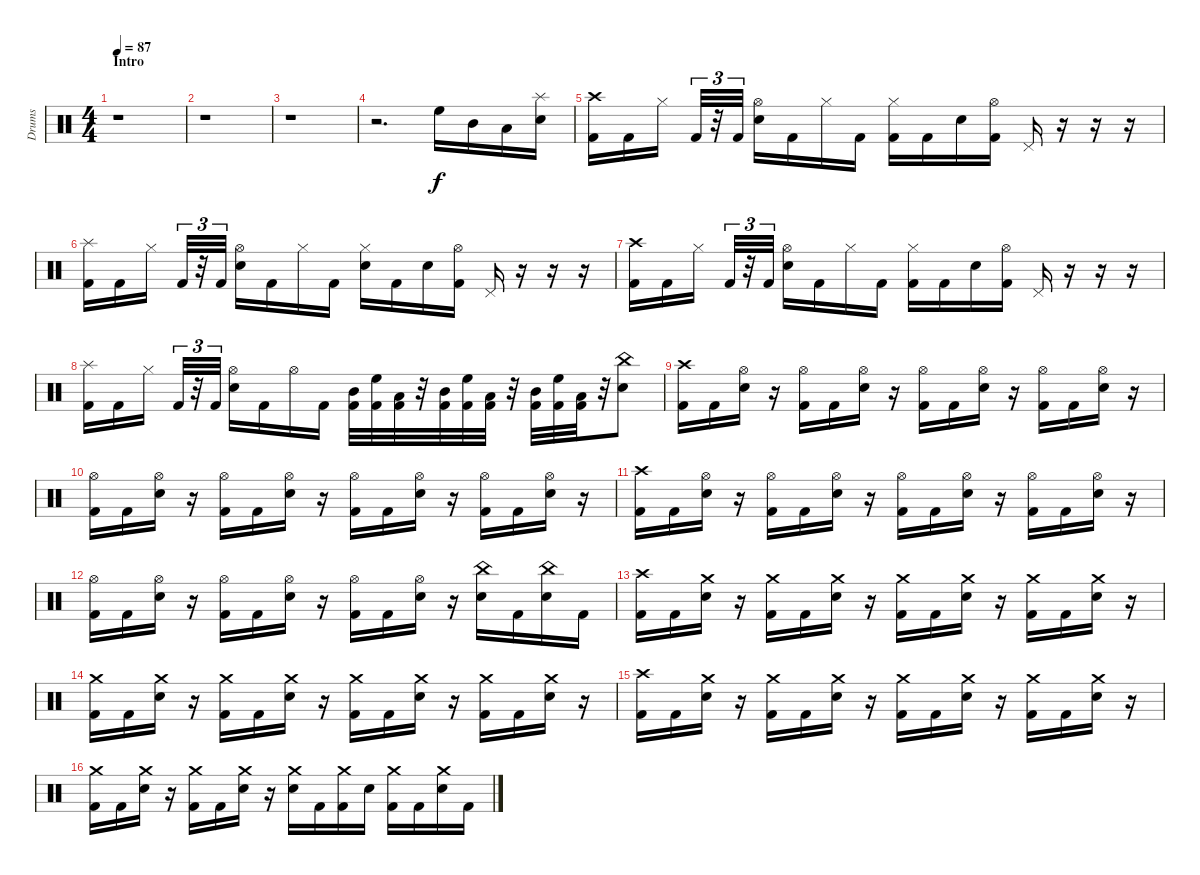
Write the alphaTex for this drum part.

\track ("Drums" "Drums") {instrument percussion}
\staff {score}
\articulation defaults
\ts (4 4)
\section ("" "Intro")
\tempo 87
\clef neutral
\ks c
r.1{dy f} |
r.1 |
r.1 |
r.2{d} "High Floor Tom (hit)".16 "Mid Tom (hit)".16 "Low Tom (hit)".16 ("Splash (hit)" "Electric Snare (hit)").16 |
("Crash high (hit)" "Kick (hit) 2").16 "Kick (hit) 2".16 "Hi-Hat (closed)".16 "Kick (hit) 2".32{tu (3 2)} r.32{tu (3 2)} "Kick (hit) 2".32{tu (3 2)} ("Hi-Hat (open)" "Electric Snare (hit)").16 "Kick (hit) 2".16 "Hi-Hat (closed)".16 "Kick (hit) 2".16 ("Hi-Hat (closed)" "Kick (hit) 2").16 "Kick (hit) 2".16 "Electric Snare (hit)".16 ("Hi-Hat (open)" "Kick (hit) 2").16 "Pedal Hi-Hat (hit)".16 r.16 r.16 r.16 |
("Splash (hit)" "Kick (hit) 2").16 "Kick (hit) 2".16 "Hi-Hat (closed)".16 "Kick (hit) 2".32{tu (3 2)} r.32{tu (3 2)} "Kick (hit) 2".32{tu (3 2)} ("Hi-Hat (open)" "Electric Snare (hit)").16 "Kick (hit) 2".16 "Hi-Hat (closed)".16 "Kick (hit) 2".16 ("Hi-Hat (closed)" "Electric Snare (hit)").16 "Kick (hit) 2".16 "Electric Snare (hit)".16 ("Hi-Hat (open)" "Kick (hit) 2").16 "Pedal Hi-Hat (hit)".16 r.16 r.16 r.16 |
("Crash high (hit)" "Kick (hit) 2").16 "Kick (hit) 2".16 "Hi-Hat (closed)".16 "Kick (hit) 2".32{tu (3 2)} r.32{tu (3 2)} "Kick (hit) 2".32{tu (3 2)} ("Hi-Hat (open)" "Electric Snare (hit)").16 "Kick (hit) 2".16 "Hi-Hat (closed)".16 "Kick (hit) 2".16 ("Hi-Hat (closed)" "Kick (hit) 2").16 "Kick (hit) 2".16 "Electric Snare (hit)".16 ("Hi-Hat (open)" "Kick (hit) 2").16 "Pedal Hi-Hat (hit)".16 r.16 r.16 r.16 |
("Splash (hit)" "Kick (hit) 2").16 "Kick (hit) 2".16 "Hi-Hat (closed)".16 "Kick (hit) 2".32{tu (3 2)} r.32{tu (3 2)} "Kick (hit) 2".32{tu (3 2)} ("Hi-Hat (open)" "Electric Snare (hit)").16 "Kick (hit) 2".16 "Hi-Hat (open)".16 "Kick (hit) 2".16 ("Mid Tom (hit)" "Kick (hit) 2").32 ("High Floor Tom (hit)" "Kick (hit) 2").32 ("Low Tom (hit)" "Kick (hit) 2").32 r.32 ("Mid Tom (hit)" "Kick (hit) 2").32 ("High Floor Tom (hit)" "Kick (hit) 2").32 ("Low Tom (hit)" "Kick (hit) 2").32 r.32 ("Mid Tom (hit)" "Kick (hit) 2").32 ("High Floor Tom (hit)" "Kick (hit) 2").32 ("Low Tom (hit)" "Kick (hit) 2").32 r.32 ("China (hit)" "Electric Snare (hit)").8 |
("Crash high (hit)" "Kick (hit) 2").16 "Kick (hit) 2".16 ("Hi-Hat (open)" "Electric Snare (hit)").16 r.16 ("Hi-Hat (open)" "Kick (hit) 2").16 "Kick (hit) 2".16 ("Hi-Hat (open)" "Electric Snare (hit)").16 r.16 ("Hi-Hat (open)" "Kick (hit) 2").16 "Kick (hit) 2".16 ("Hi-Hat (open)" "Electric Snare (hit)").16 r.16 ("Hi-Hat (open)" "Kick (hit) 2").16 "Kick (hit) 2".16 ("Hi-Hat (open)" "Electric Snare (hit)").16 r.16 |
("Hi-Hat (open)" "Kick (hit) 2").16 "Kick (hit) 2".16 ("Hi-Hat (open)" "Electric Snare (hit)").16 r.16 ("Hi-Hat (open)" "Kick (hit) 2").16 "Kick (hit) 2".16 ("Hi-Hat (open)" "Electric Snare (hit)").16 r.16 ("Hi-Hat (open)" "Kick (hit) 2").16 "Kick (hit) 2".16 ("Hi-Hat (open)" "Electric Snare (hit)").16 r.16 ("Hi-Hat (open)" "Kick (hit) 2").16 "Kick (hit) 2".16 ("Hi-Hat (open)" "Electric Snare (hit)").16 r.16 |
("Crash high (hit)" "Kick (hit) 2").16 "Kick (hit) 2".16 ("Hi-Hat (open)" "Electric Snare (hit)").16 r.16 ("Hi-Hat (open)" "Kick (hit) 2").16 "Kick (hit) 2".16 ("Hi-Hat (open)" "Electric Snare (hit)").16 r.16 ("Hi-Hat (open)" "Kick (hit) 2").16 "Kick (hit) 2".16 ("Hi-Hat (open)" "Electric Snare (hit)").16 r.16 ("Hi-Hat (open)" "Kick (hit) 2").16 "Kick (hit) 2".16 ("Hi-Hat (open)" "Electric Snare (hit)").16 r.16 |
("Hi-Hat (open)" "Kick (hit) 2").16 "Kick (hit) 2".16 ("Hi-Hat (open)" "Electric Snare (hit)").16 r.16 ("Hi-Hat (open)" "Kick (hit) 2").16 "Kick (hit) 2".16 ("Hi-Hat (open)" "Electric Snare (hit)").16 r.16 ("Hi-Hat (open)" "Kick (hit) 2").16 "Kick (hit) 2".16 ("Hi-Hat (open)" "Electric Snare (hit)").16 r.16 ("China (hit)" "Electric Snare (hit)").16 "Kick (hit) 2".16 ("China (hit)" "Electric Snare (hit)").16 "Kick (hit) 2".16 |
("Crash high (hit)" "Kick (hit) 2").16 "Kick (hit) 2".16 ("Crash medium (hit)" "Electric Snare (hit)").16 r.16 ("Crash medium (hit)" "Kick (hit) 2").16 "Kick (hit) 2".16 ("Crash medium (hit)" "Electric Snare (hit)").16 r.16 ("Crash medium (hit)" "Kick (hit) 2").16 "Kick (hit) 2".16 ("Crash medium (hit)" "Electric Snare (hit)").16 r.16 ("Crash medium (hit)" "Kick (hit) 2").16 "Kick (hit) 2".16 ("Crash medium (hit)" "Electric Snare (hit)").16 r.16 |
("Crash medium (hit)" "Kick (hit) 2").16 "Kick (hit) 2".16 ("Crash medium (hit)" "Electric Snare (hit)").16 r.16 ("Crash medium (hit)" "Kick (hit) 2").16 "Kick (hit) 2".16 ("Crash medium (hit)" "Electric Snare (hit)").16 r.16 ("Crash medium (hit)" "Kick (hit) 2").16 "Kick (hit) 2".16 ("Crash medium (hit)" "Electric Snare (hit)").16 r.16 ("Crash medium (hit)" "Kick (hit) 2").16 "Kick (hit) 2".16 ("Crash medium (hit)" "Electric Snare (hit)").16 r.16 |
("Crash high (hit)" "Kick (hit) 2").16 "Kick (hit) 2".16 ("Crash medium (hit)" "Electric Snare (hit)").16 r.16 ("Crash medium (hit)" "Kick (hit) 2").16 "Kick (hit) 2".16 ("Crash medium (hit)" "Electric Snare (hit)").16 r.16 ("Crash medium (hit)" "Kick (hit) 2").16 "Kick (hit) 2".16 ("Crash medium (hit)" "Electric Snare (hit)").16 r.16 ("Crash medium (hit)" "Kick (hit) 2").16 "Kick (hit) 2".16 ("Crash medium (hit)" "Electric Snare (hit)").16 r.16 |
("Crash medium (hit)" "Kick (hit) 2").16 "Kick (hit) 2".16 ("Crash medium (hit)" "Electric Snare (hit)").16 r.16 ("Crash medium (hit)" "Kick (hit) 2").16 "Kick (hit) 2".16 ("Crash medium (hit)" "Electric Snare (hit)").16 r.16 ("Crash medium (hit)" "Electric Snare (hit)").16 "Kick (hit) 2".16 ("Crash medium (hit)" "Kick (hit) 2").16 "Electric Snare (hit)".16 ("Crash medium (hit)" "Kick (hit) 2").16 "Kick (hit) 2".16 ("Crash medium (hit)" "Electric Snare (hit)").16 "Kick (hit) 2".16
